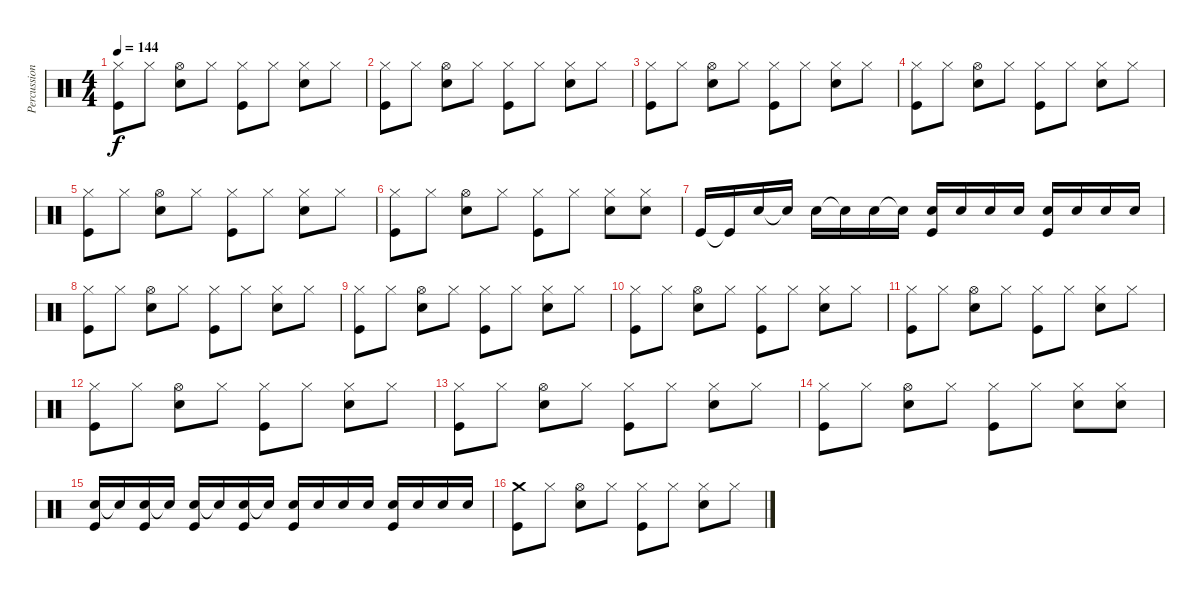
\track ("Percussion" "Percussion") {instrument percussion}
\staff {score}
\articulation defaults
\ts (4 4)
\tempo 144
\clef neutral
\ks c
("Hi-Hat (closed)" "Kick (hit)").8{dy f} "Hi-Hat (closed)".8 ("Hi-Hat (open)" "Snare (hit) 2").8 "Hi-Hat (closed)".8 ("Hi-Hat (closed)" "Kick (hit)").8 "Hi-Hat (closed)".8 ("Hi-Hat (closed)" "Snare (hit) 2").8 "Hi-Hat (closed)".8 |
("Hi-Hat (closed)" "Kick (hit)").8 "Hi-Hat (closed)".8 ("Hi-Hat (open)" "Snare (hit) 2").8 "Hi-Hat (closed)".8 ("Hi-Hat (closed)" "Kick (hit)").8 "Hi-Hat (closed)".8 ("Hi-Hat (closed)" "Snare (hit) 2").8 "Hi-Hat (closed)".8 |
("Hi-Hat (closed)" "Kick (hit)").8 "Hi-Hat (closed)".8 ("Hi-Hat (open)" "Snare (hit) 2").8 "Hi-Hat (closed)".8 ("Hi-Hat (closed)" "Kick (hit)").8 "Hi-Hat (closed)".8 ("Hi-Hat (closed)" "Snare (hit) 2").8 "Hi-Hat (closed)".8 |
("Hi-Hat (closed)" "Kick (hit)").8 "Hi-Hat (closed)".8 ("Hi-Hat (open)" "Snare (hit) 2").8 "Hi-Hat (closed)".8 ("Hi-Hat (closed)" "Kick (hit)").8 "Hi-Hat (closed)".8 ("Hi-Hat (closed)" "Snare (hit) 2").8 "Hi-Hat (closed)".8 |
("Hi-Hat (closed)" "Kick (hit)").8 "Hi-Hat (closed)".8 ("Hi-Hat (open)" "Snare (hit) 2").8 "Hi-Hat (closed)".8 ("Hi-Hat (closed)" "Kick (hit)").8 "Hi-Hat (closed)".8 ("Hi-Hat (closed)" "Snare (hit) 2").8 "Hi-Hat (closed)".8 |
("Hi-Hat (closed)" "Kick (hit)").8 "Hi-Hat (closed)".8 ("Hi-Hat (open)" "Snare (hit) 2").8 "Hi-Hat (closed)".8 ("Hi-Hat (closed)" "Kick (hit)").8 "Hi-Hat (closed)".8 ("Hi-Hat (closed)" "Snare (hit) 2").8 ("Hi-Hat (closed)" "Snare (hit) 2").8 |
"Kick (hit)".16 "Kick (hit)"{t}.16 "Snare (hit) 2".16 "Snare (hit) 2"{t}.16 "Snare (hit) 2".16 "Snare (hit) 2"{t}.16 "Snare (hit) 2".16 "Snare (hit) 2"{t}.16 ("Snare (hit) 2" "Kick (hit)").16 "Snare (hit) 2".16 "Snare (hit) 2".16 "Snare (hit) 2".16 ("Snare (hit) 2" "Kick (hit)").16 "Snare (hit) 2".16 "Snare (hit) 2".16 "Snare (hit) 2".16 |
("Hi-Hat (closed)" "Kick (hit)").8 "Hi-Hat (closed)".8 ("Hi-Hat (open)" "Snare (hit) 2").8 "Hi-Hat (closed)".8 ("Hi-Hat (closed)" "Kick (hit)").8 "Hi-Hat (closed)".8 ("Hi-Hat (closed)" "Snare (hit) 2").8 "Hi-Hat (closed)".8 |
("Hi-Hat (closed)" "Kick (hit)").8 "Hi-Hat (closed)".8 ("Hi-Hat (open)" "Snare (hit) 2").8 "Hi-Hat (closed)".8 ("Hi-Hat (closed)" "Kick (hit)").8 "Hi-Hat (closed)".8 ("Hi-Hat (closed)" "Snare (hit) 2").8 "Hi-Hat (closed)".8 |
("Hi-Hat (closed)" "Kick (hit)").8 "Hi-Hat (closed)".8 ("Hi-Hat (open)" "Snare (hit) 2").8 "Hi-Hat (closed)".8 ("Hi-Hat (closed)" "Kick (hit)").8 "Hi-Hat (closed)".8 ("Hi-Hat (closed)" "Snare (hit) 2").8 "Hi-Hat (closed)".8 |
("Hi-Hat (closed)" "Kick (hit)").8 "Hi-Hat (closed)".8 ("Hi-Hat (open)" "Snare (hit) 2").8 "Hi-Hat (closed)".8 ("Hi-Hat (closed)" "Kick (hit)").8 "Hi-Hat (closed)".8 ("Hi-Hat (closed)" "Snare (hit) 2").8 "Hi-Hat (closed)".8 |
("Hi-Hat (closed)" "Kick (hit)").8 "Hi-Hat (closed)".8 ("Hi-Hat (open)" "Snare (hit) 2").8 "Hi-Hat (closed)".8 ("Hi-Hat (closed)" "Kick (hit)").8 "Hi-Hat (closed)".8 ("Hi-Hat (closed)" "Snare (hit) 2").8 "Hi-Hat (closed)".8 |
("Hi-Hat (closed)" "Kick (hit)").8 "Hi-Hat (closed)".8 ("Hi-Hat (open)" "Snare (hit) 2").8 "Hi-Hat (closed)".8 ("Hi-Hat (closed)" "Kick (hit)").8 "Hi-Hat (closed)".8 ("Hi-Hat (closed)" "Snare (hit) 2").8 "Hi-Hat (closed)".8 |
("Hi-Hat (closed)" "Kick (hit)").8 "Hi-Hat (closed)".8 ("Hi-Hat (open)" "Snare (hit) 2").8 "Hi-Hat (closed)".8 ("Hi-Hat (closed)" "Kick (hit)").8 "Hi-Hat (closed)".8 ("Hi-Hat (closed)" "Snare (hit) 2").8 ("Hi-Hat (closed)" "Snare (hit) 2").8 |
("Snare (hit) 2" "Kick (hit)").16 "Snare (hit) 2"{t}.16 ("Snare (hit) 2" "Kick (hit)").16 "Snare (hit) 2"{t}.16 ("Snare (hit) 2" "Kick (hit)").16 "Snare (hit) 2"{t}.16 ("Snare (hit) 2" "Kick (hit)").16 "Snare (hit) 2"{t}.16 ("Snare (hit) 2" "Kick (hit)").16 "Snare (hit) 2".16 "Snare (hit) 2".16 "Snare (hit) 2".16 ("Snare (hit) 2" "Kick (hit)").16 "Snare (hit) 2".16 "Snare (hit) 2".16 "Snare (hit) 2".16 |
("Crash medium (hit)" "Kick (hit)").8 "Hi-Hat (closed)".8 ("Hi-Hat (open)" "Snare (hit) 2").8 "Hi-Hat (closed)".8 ("Hi-Hat (closed)" "Kick (hit)").8 "Hi-Hat (closed)".8 ("Hi-Hat (closed)" "Snare (hit) 2").8 "Hi-Hat (closed)".8
